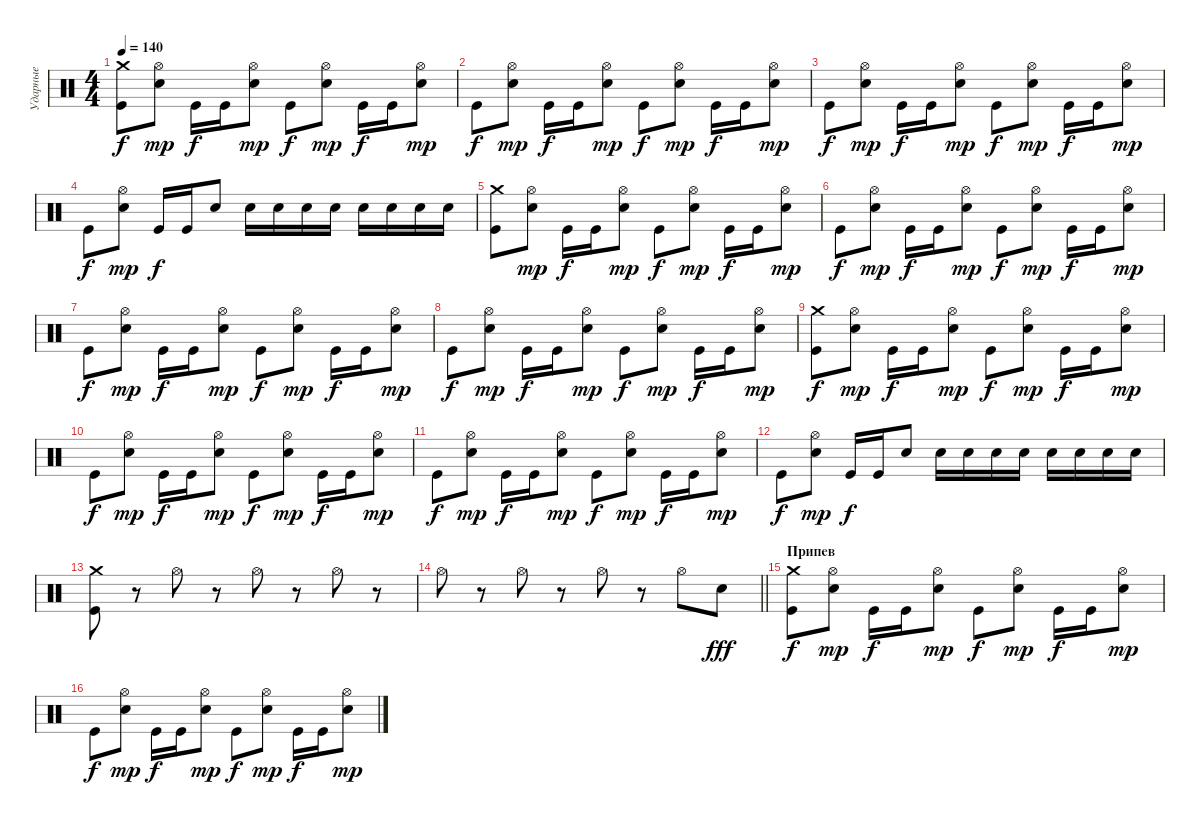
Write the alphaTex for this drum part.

\track ("Ударные" "Ударные") {instrument percussion}
\staff {score}
\articulation defaults
\ts (4 4)
\tempo 140
\clef neutral
\ks c
("Crash medium (hit)" "Kick (hit)").8{dy f} ("Hi-Hat (open)" "Electric Snare (hit)").8{dy mp} "Kick (hit)".16{dy f} "Kick (hit)".16 ("Hi-Hat (open)" "Electric Snare (hit)").8{dy mp} "Kick (hit)".8{dy f} ("Hi-Hat (open)" "Electric Snare (hit)").8{dy mp} "Kick (hit)".16{dy f} "Kick (hit)".16 ("Hi-Hat (open)" "Electric Snare (hit)").8{dy mp} |
"Kick (hit)".8{dy f} ("Hi-Hat (open)" "Electric Snare (hit)").8{dy mp} "Kick (hit)".16{dy f} "Kick (hit)".16 ("Hi-Hat (open)" "Electric Snare (hit)").8{dy mp} "Kick (hit)".8{dy f} ("Hi-Hat (open)" "Electric Snare (hit)").8{dy mp} "Kick (hit)".16{dy f} "Kick (hit)".16 ("Hi-Hat (open)" "Electric Snare (hit)").8{dy mp} |
"Kick (hit)".8{dy f} ("Hi-Hat (open)" "Electric Snare (hit)").8{dy mp} "Kick (hit)".16{dy f} "Kick (hit)".16 ("Hi-Hat (open)" "Electric Snare (hit)").8{dy mp} "Kick (hit)".8{dy f} ("Hi-Hat (open)" "Electric Snare (hit)").8{dy mp} "Kick (hit)".16{dy f} "Kick (hit)".16 ("Hi-Hat (open)" "Electric Snare (hit)").8{dy mp} |
"Kick (hit)".8{dy f} ("Hi-Hat (open)" "Electric Snare (hit)").8{dy mp} "Kick (hit)".16{dy f} "Kick (hit)".16 "Electric Snare (hit)".8 "Electric Snare (hit)".16 "Electric Snare (hit)".16 "Electric Snare (hit)".16 "Electric Snare (hit)".16 "Electric Snare (hit)".16 "Electric Snare (hit)".16 "Electric Snare (hit)".16 "Electric Snare (hit)".16 |
("Crash medium (hit)" "Kick (hit)").8 ("Hi-Hat (open)" "Electric Snare (hit)").8{dy mp} "Kick (hit)".16{dy f} "Kick (hit)".16 ("Hi-Hat (open)" "Electric Snare (hit)").8{dy mp} "Kick (hit)".8{dy f} ("Hi-Hat (open)" "Electric Snare (hit)").8{dy mp} "Kick (hit)".16{dy f} "Kick (hit)".16 ("Hi-Hat (open)" "Electric Snare (hit)").8{dy mp} |
"Kick (hit)".8{dy f} ("Hi-Hat (open)" "Electric Snare (hit)").8{dy mp} "Kick (hit)".16{dy f} "Kick (hit)".16 ("Hi-Hat (open)" "Electric Snare (hit)").8{dy mp} "Kick (hit)".8{dy f} ("Hi-Hat (open)" "Electric Snare (hit)").8{dy mp} "Kick (hit)".16{dy f} "Kick (hit)".16 ("Hi-Hat (open)" "Electric Snare (hit)").8{dy mp} |
"Kick (hit)".8{dy f} ("Hi-Hat (open)" "Electric Snare (hit)").8{dy mp} "Kick (hit)".16{dy f} "Kick (hit)".16 ("Hi-Hat (open)" "Electric Snare (hit)").8{dy mp} "Kick (hit)".8{dy f} ("Hi-Hat (open)" "Electric Snare (hit)").8{dy mp} "Kick (hit)".16{dy f} "Kick (hit)".16 ("Hi-Hat (open)" "Electric Snare (hit)").8{dy mp} |
"Kick (hit)".8{dy f} ("Hi-Hat (open)" "Electric Snare (hit)").8{dy mp} "Kick (hit)".16{dy f} "Kick (hit)".16 ("Hi-Hat (open)" "Electric Snare (hit)").8{dy mp} "Kick (hit)".8{dy f} ("Hi-Hat (open)" "Electric Snare (hit)").8{dy mp} "Kick (hit)".16{dy f} "Kick (hit)".16 ("Hi-Hat (open)" "Electric Snare (hit)").8{dy mp} |
("Crash medium (hit)" "Kick (hit)").8{dy f} ("Hi-Hat (open)" "Electric Snare (hit)").8{dy mp} "Kick (hit)".16{dy f} "Kick (hit)".16 ("Hi-Hat (open)" "Electric Snare (hit)").8{dy mp} "Kick (hit)".8{dy f} ("Hi-Hat (open)" "Electric Snare (hit)").8{dy mp} "Kick (hit)".16{dy f} "Kick (hit)".16 ("Hi-Hat (open)" "Electric Snare (hit)").8{dy mp} |
"Kick (hit)".8{dy f} ("Hi-Hat (open)" "Electric Snare (hit)").8{dy mp} "Kick (hit)".16{dy f} "Kick (hit)".16 ("Hi-Hat (open)" "Electric Snare (hit)").8{dy mp} "Kick (hit)".8{dy f} ("Hi-Hat (open)" "Electric Snare (hit)").8{dy mp} "Kick (hit)".16{dy f} "Kick (hit)".16 ("Hi-Hat (open)" "Electric Snare (hit)").8{dy mp} |
"Kick (hit)".8{dy f} ("Hi-Hat (open)" "Electric Snare (hit)").8{dy mp} "Kick (hit)".16{dy f} "Kick (hit)".16 ("Hi-Hat (open)" "Electric Snare (hit)").8{dy mp} "Kick (hit)".8{dy f} ("Hi-Hat (open)" "Electric Snare (hit)").8{dy mp} "Kick (hit)".16{dy f} "Kick (hit)".16 ("Hi-Hat (open)" "Electric Snare (hit)").8{dy mp} |
"Kick (hit)".8{dy f} ("Hi-Hat (open)" "Electric Snare (hit)").8{dy mp} "Kick (hit)".16{dy f} "Kick (hit)".16 "Electric Snare (hit)".8 "Electric Snare (hit)".16 "Electric Snare (hit)".16 "Electric Snare (hit)".16 "Electric Snare (hit)".16 "Electric Snare (hit)".16 "Electric Snare (hit)".16 "Electric Snare (hit)".16 "Electric Snare (hit)".16 |
("Crash medium (hit)" "Kick (hit)").8 r.8 "Hi-Hat (open)".8 r.8 "Hi-Hat (open)".8 r.8 "Hi-Hat (open)".8 r.8 |
\barLineRight lightlight "Hi-Hat (open)".8
r.8 "Hi-Hat (open)".8 r.8 "Hi-Hat (open)".8 r.8 "Hi-Hat (open)".8 "Electric Snare (hit)".8{dy fff} |
\section ("" "Припев")
("Crash medium (hit)" "Kick (hit)").8{dy f} ("Hi-Hat (open)" "Electric Snare (hit)").8{dy mp} "Kick (hit)".16{dy f} "Kick (hit)".16 ("Hi-Hat (open)" "Electric Snare (hit)").8{dy mp} "Kick (hit)".8{dy f} ("Hi-Hat (open)" "Electric Snare (hit)").8{dy mp} "Kick (hit)".16{dy f} "Kick (hit)".16 ("Hi-Hat (open)" "Electric Snare (hit)").8{dy mp} |
"Kick (hit)".8{dy f} ("Hi-Hat (open)" "Electric Snare (hit)").8{dy mp} "Kick (hit)".16{dy f} "Kick (hit)".16 ("Hi-Hat (open)" "Electric Snare (hit)").8{dy mp} "Kick (hit)".8{dy f} ("Hi-Hat (open)" "Electric Snare (hit)").8{dy mp} "Kick (hit)".16{dy f} "Kick (hit)".16 ("Hi-Hat (open)" "Electric Snare (hit)").8{dy mp}
